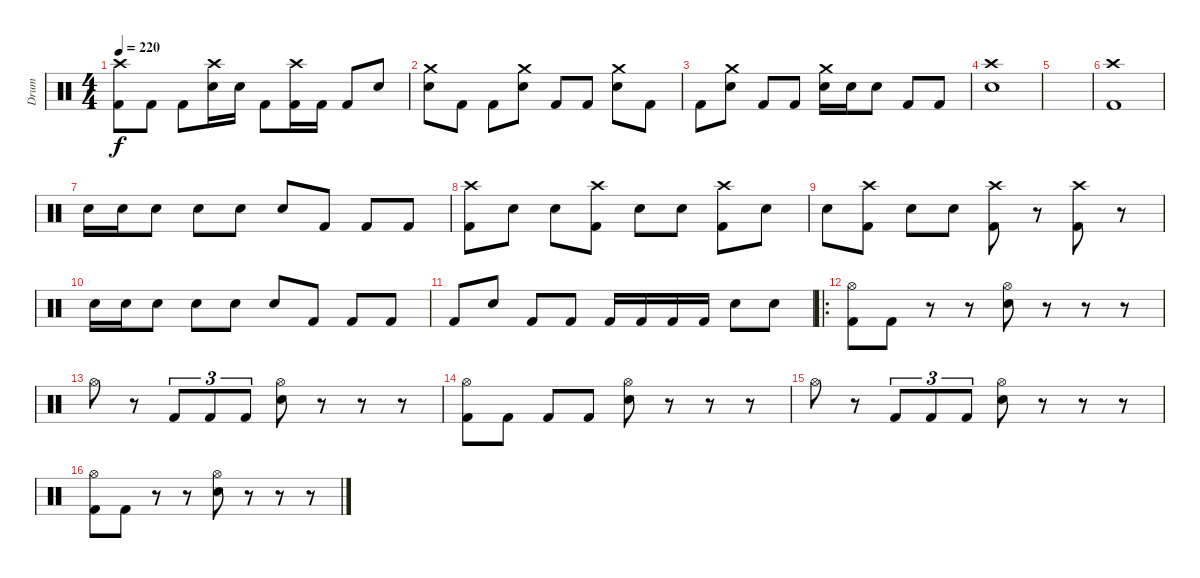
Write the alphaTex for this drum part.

\track ("Drum" "Drum") {instrument percussion}
\staff {score}
\articulation defaults
\ts (4 4)
\tempo 220
\clef neutral
\ks c
("Crash high (hit)" "Kick (hit) 2").8{dy f} "Kick (hit) 2".8 "Kick (hit) 2".8 ("Crash high (hit)" "Snare (hit) 2").16 "Snare (hit) 2".16 "Kick (hit) 2".8 ("Crash high (hit)" "Kick (hit) 2").16 "Kick (hit) 2".16 "Kick (hit) 2".8 "Snare (hit) 2".8 |
("Crash medium (hit)" "Snare (hit) 2").8 "Kick (hit) 2".8 "Kick (hit) 2".8 ("Crash medium (hit)" "Snare (hit) 2").8 "Kick (hit) 2".8 "Kick (hit) 2".8 ("Crash medium (hit)" "Snare (hit) 2").8 "Kick (hit) 2".8 |
"Kick (hit) 2".8 ("Crash medium (hit)" "Snare (hit) 2").8 "Kick (hit) 2".8 "Kick (hit) 2".8 ("Crash medium (hit)" "Snare (hit) 2").16 "Snare (hit) 2".16 "Snare (hit) 2".8 "Kick (hit) 2".8 "Kick (hit) 2".8 |
("Crash high (hit)" "Snare (hit) 2").1 |
|
("Crash high (hit)" "Kick (hit) 2").1 |
"Snare (hit) 2".16 "Snare (hit) 2".16 "Snare (hit) 2".8 "Snare (hit) 2".8 "Snare (hit) 2".8 "Snare (hit) 2".8 "Kick (hit) 2".8 "Kick (hit) 2".8 "Kick (hit) 2".8 |
("Crash high (hit)" "Kick (hit) 2").8 "Snare (hit) 2".8 "Snare (hit) 2".8 ("Crash high (hit)" "Kick (hit) 2").8 "Snare (hit) 2".8 "Snare (hit) 2".8 ("Crash high (hit)" "Kick (hit) 2").8 "Snare (hit) 2".8 |
"Snare (hit) 2".8 ("Crash high (hit)" "Kick (hit) 2").8 "Snare (hit) 2".8 "Snare (hit) 2".8 ("Crash high (hit)" "Kick (hit) 2").8 r.8 ("Crash high (hit)" "Kick (hit) 2").8 r.8 |
"Snare (hit) 2".16 "Snare (hit) 2".16 "Snare (hit) 2".8 "Snare (hit) 2".8 "Snare (hit) 2".8 "Snare (hit) 2".8 "Kick (hit) 2".8 "Kick (hit) 2".8 "Kick (hit) 2".8 |
"Kick (hit) 2".8 "Snare (hit) 2".8 "Kick (hit) 2".8 "Kick (hit) 2".8 "Kick (hit) 2".16 "Kick (hit) 2".16 "Kick (hit) 2".16 "Kick (hit) 2".16 "Snare (hit) 2".8 "Snare (hit) 2".8 |
\ro
("Hi-Hat (open)" "Kick (hit) 2").8 "Kick (hit) 2".8 r.8 r.8 ("Hi-Hat (open)" "Snare (hit) 2").8 r.8 r.8 r.8 |
"Hi-Hat (open)".8 r.8 "Kick (hit) 2".8{tu (3 2)} "Kick (hit) 2".8{tu (3 2)} "Kick (hit) 2".8{tu (3 2)} ("Hi-Hat (open)" "Snare (hit) 2").8 r.8 r.8 r.8 |
("Hi-Hat (open)" "Kick (hit) 2").8 "Kick (hit) 2".8 "Kick (hit) 2".8 "Kick (hit) 2".8 ("Hi-Hat (open)" "Snare (hit) 2").8 r.8 r.8 r.8 |
"Hi-Hat (open)".8 r.8 "Kick (hit) 2".8{tu (3 2)} "Kick (hit) 2".8{tu (3 2)} "Kick (hit) 2".8{tu (3 2)} ("Hi-Hat (open)" "Snare (hit) 2").8 r.8 r.8 r.8 |
("Hi-Hat (open)" "Kick (hit) 2").8 "Kick (hit) 2".8 r.8 r.8 ("Hi-Hat (open)" "Snare (hit) 2").8 r.8 r.8 r.8
